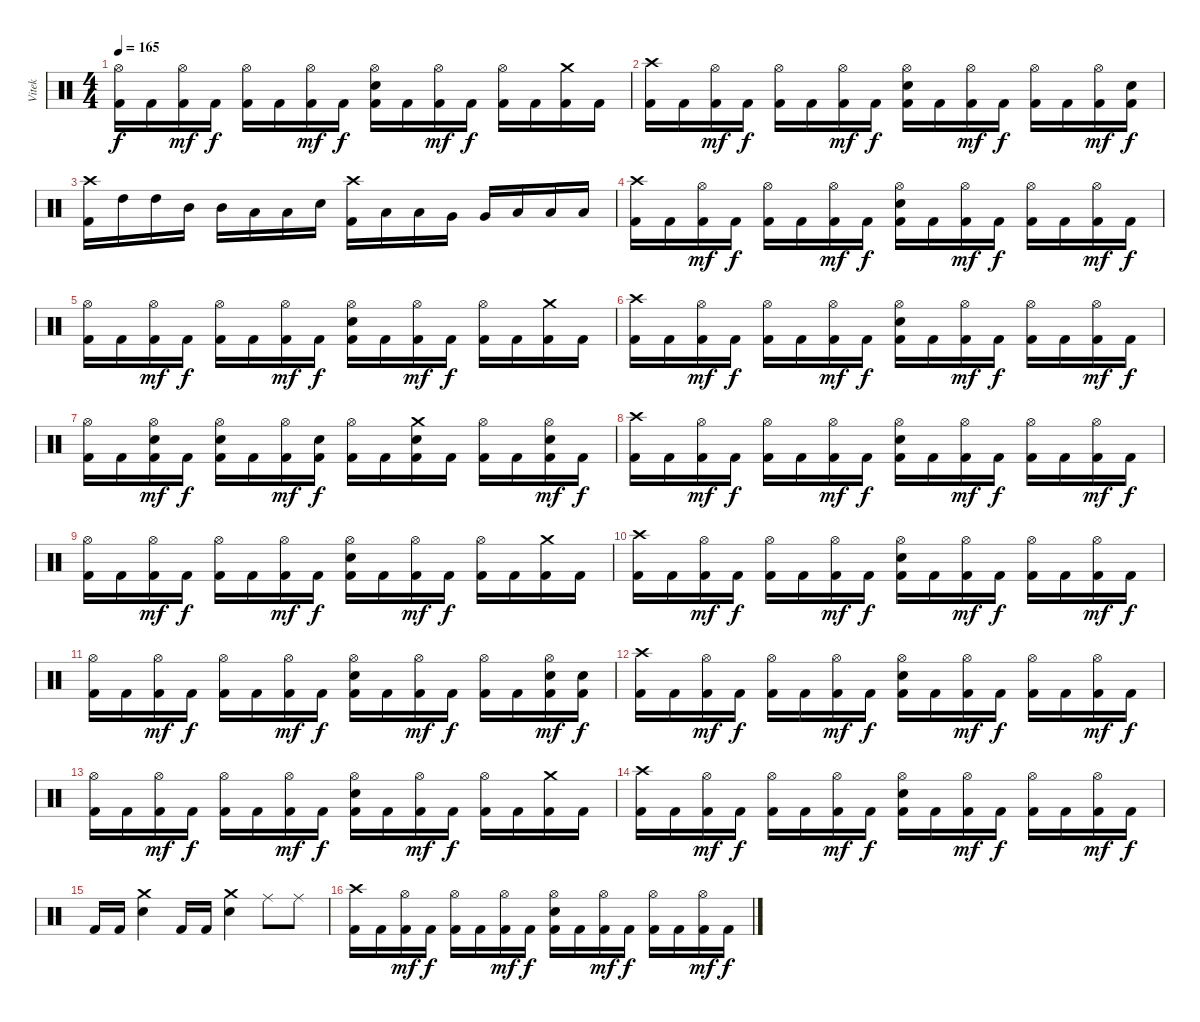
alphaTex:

\track ("Vitek" "Vitek") {instrument percussion}
\staff {score}
\articulation defaults
\ts (4 4)
\tempo 165
\clef neutral
\ks c
("Hi-Hat (open)" "Kick (hit) 2").16{dy f} "Kick (hit) 2".16 ("Hi-Hat (open)" "Kick (hit) 2").16{dy mf} "Kick (hit) 2".16{dy f} ("Hi-Hat (open)" "Kick (hit) 2").16 "Kick (hit) 2".16 ("Hi-Hat (open)" "Kick (hit) 2").16{dy mf} "Kick (hit) 2".16{dy f} ("Hi-Hat (open)" "Electric Snare (hit)" "Kick (hit) 2").16 "Kick (hit) 2".16 ("Hi-Hat (open)" "Kick (hit) 2").16{dy mf} "Kick (hit) 2".16{dy f} ("Hi-Hat (open)" "Kick (hit) 2").16 "Kick (hit) 2".16 ("Crash medium (hit)" "Kick (hit) 2").16 "Kick (hit) 2".16 |
("Crash high (hit)" "Kick (hit) 2").16 "Kick (hit) 2".16 ("Hi-Hat (open)" "Kick (hit) 2").16{dy mf} "Kick (hit) 2".16{dy f} ("Hi-Hat (open)" "Kick (hit) 2").16 "Kick (hit) 2".16 ("Hi-Hat (open)" "Kick (hit) 2").16{dy mf} "Kick (hit) 2".16{dy f} ("Hi-Hat (open)" "Electric Snare (hit)" "Kick (hit) 2").16 "Kick (hit) 2".16 ("Hi-Hat (open)" "Kick (hit) 2").16{dy mf} "Kick (hit) 2".16{dy f} ("Hi-Hat (open)" "Kick (hit) 2").16 "Kick (hit) 2".16 ("Hi-Hat (open)" "Kick (hit) 2").16{dy mf} ("Electric Snare (hit)" "Kick (hit) 2").16{dy f} |
("Crash high (hit)" "Kick (hit) 2").16 "High Tom (hit)".16 "High Tom (hit)".16 "Mid Tom (hit)".16 "Mid Tom (hit)".16 "Low Tom (hit)".16 "Low Tom (hit)".16 "Electric Snare (hit)".16 ("Crash high (hit)" "Kick (hit) 2").16 "Low Tom (hit)".16 "Low Tom (hit)".16 "Very Low Tom (hit)".16 "Very Low Tom (hit)".16 "Low Floor Tom (hit)".16 "Low Floor Tom (hit)".16 "Low Floor Tom (hit)".16 |
("Crash high (hit)" "Kick (hit) 2").16 "Kick (hit) 2".16 ("Hi-Hat (open)" "Kick (hit) 2").16{dy mf} "Kick (hit) 2".16{dy f} ("Hi-Hat (open)" "Kick (hit) 2").16 "Kick (hit) 2".16 ("Hi-Hat (open)" "Kick (hit) 2").16{dy mf} "Kick (hit) 2".16{dy f} ("Hi-Hat (open)" "Electric Snare (hit)" "Kick (hit) 2").16 "Kick (hit) 2".16 ("Hi-Hat (open)" "Kick (hit) 2").16{dy mf} "Kick (hit) 2".16{dy f} ("Hi-Hat (open)" "Kick (hit) 2").16 "Kick (hit) 2".16 ("Hi-Hat (open)" "Kick (hit) 2").16{dy mf} "Kick (hit) 2".16{dy f} |
("Hi-Hat (open)" "Kick (hit) 2").16 "Kick (hit) 2".16 ("Hi-Hat (open)" "Kick (hit) 2").16{dy mf} "Kick (hit) 2".16{dy f} ("Hi-Hat (open)" "Kick (hit) 2").16 "Kick (hit) 2".16 ("Hi-Hat (open)" "Kick (hit) 2").16{dy mf} "Kick (hit) 2".16{dy f} ("Hi-Hat (open)" "Electric Snare (hit)" "Kick (hit) 2").16 "Kick (hit) 2".16 ("Hi-Hat (open)" "Kick (hit) 2").16{dy mf} "Kick (hit) 2".16{dy f} ("Hi-Hat (open)" "Kick (hit) 2").16 "Kick (hit) 2".16 ("Crash medium (hit)" "Kick (hit) 2").16 "Kick (hit) 2".16 |
("Crash high (hit)" "Kick (hit) 2").16 "Kick (hit) 2".16 ("Hi-Hat (open)" "Kick (hit) 2").16{dy mf} "Kick (hit) 2".16{dy f} ("Hi-Hat (open)" "Kick (hit) 2").16 "Kick (hit) 2".16 ("Hi-Hat (open)" "Kick (hit) 2").16{dy mf} "Kick (hit) 2".16{dy f} ("Hi-Hat (open)" "Electric Snare (hit)" "Kick (hit) 2").16 "Kick (hit) 2".16 ("Hi-Hat (open)" "Kick (hit) 2").16{dy mf} "Kick (hit) 2".16{dy f} ("Hi-Hat (open)" "Kick (hit) 2").16 "Kick (hit) 2".16 ("Hi-Hat (open)" "Kick (hit) 2").16{dy mf} "Kick (hit) 2".16{dy f} |
("Hi-Hat (open)" "Kick (hit) 2").16 "Kick (hit) 2".16 ("Hi-Hat (open)" "Electric Snare (hit)" "Kick (hit) 2").16{dy mf} "Kick (hit) 2".16{dy f} ("Hi-Hat (open)" "Electric Snare (hit)" "Kick (hit) 2").16 "Kick (hit) 2".16 ("Hi-Hat (open)" "Kick (hit) 2").16{dy mf} ("Electric Snare (hit)" "Kick (hit) 2").16{dy f} ("Hi-Hat (open)" "Kick (hit) 2").16 "Kick (hit) 2".16 ("Crash medium (hit)" "Electric Snare (hit)" "Kick (hit) 2").16 "Kick (hit) 2".16 ("Hi-Hat (open)" "Kick (hit) 2").16 "Kick (hit) 2".16 ("Hi-Hat (open)" "Electric Snare (hit)" "Kick (hit) 2").16{dy mf} "Kick (hit) 2".16{dy f} |
("Crash high (hit)" "Kick (hit) 2").16 "Kick (hit) 2".16 ("Hi-Hat (open)" "Kick (hit) 2").16{dy mf} "Kick (hit) 2".16{dy f} ("Hi-Hat (open)" "Kick (hit) 2").16 "Kick (hit) 2".16 ("Hi-Hat (open)" "Kick (hit) 2").16{dy mf} "Kick (hit) 2".16{dy f} ("Hi-Hat (open)" "Electric Snare (hit)" "Kick (hit) 2").16 "Kick (hit) 2".16 ("Hi-Hat (open)" "Kick (hit) 2").16{dy mf} "Kick (hit) 2".16{dy f} ("Hi-Hat (open)" "Kick (hit) 2").16 "Kick (hit) 2".16 ("Hi-Hat (open)" "Kick (hit) 2").16{dy mf} "Kick (hit) 2".16{dy f} |
("Hi-Hat (open)" "Kick (hit) 2").16 "Kick (hit) 2".16 ("Hi-Hat (open)" "Kick (hit) 2").16{dy mf} "Kick (hit) 2".16{dy f} ("Hi-Hat (open)" "Kick (hit) 2").16 "Kick (hit) 2".16 ("Hi-Hat (open)" "Kick (hit) 2").16{dy mf} "Kick (hit) 2".16{dy f} ("Hi-Hat (open)" "Electric Snare (hit)" "Kick (hit) 2").16 "Kick (hit) 2".16 ("Hi-Hat (open)" "Kick (hit) 2").16{dy mf} "Kick (hit) 2".16{dy f} ("Hi-Hat (open)" "Kick (hit) 2").16 "Kick (hit) 2".16 ("Crash medium (hit)" "Kick (hit) 2").16 "Kick (hit) 2".16 |
("Crash high (hit)" "Kick (hit) 2").16 "Kick (hit) 2".16 ("Hi-Hat (open)" "Kick (hit) 2").16{dy mf} "Kick (hit) 2".16{dy f} ("Hi-Hat (open)" "Kick (hit) 2").16 "Kick (hit) 2".16 ("Hi-Hat (open)" "Kick (hit) 2").16{dy mf} "Kick (hit) 2".16{dy f} ("Hi-Hat (open)" "Electric Snare (hit)" "Kick (hit) 2").16 "Kick (hit) 2".16 ("Hi-Hat (open)" "Kick (hit) 2").16{dy mf} "Kick (hit) 2".16{dy f} ("Hi-Hat (open)" "Kick (hit) 2").16 "Kick (hit) 2".16 ("Hi-Hat (open)" "Kick (hit) 2").16{dy mf} "Kick (hit) 2".16{dy f} |
("Hi-Hat (open)" "Kick (hit) 2").16 "Kick (hit) 2".16 ("Hi-Hat (open)" "Kick (hit) 2").16{dy mf} "Kick (hit) 2".16{dy f} ("Hi-Hat (open)" "Kick (hit) 2").16 "Kick (hit) 2".16 ("Hi-Hat (open)" "Kick (hit) 2").16{dy mf} "Kick (hit) 2".16{dy f} ("Hi-Hat (open)" "Electric Snare (hit)" "Kick (hit) 2").16 "Kick (hit) 2".16 ("Hi-Hat (open)" "Kick (hit) 2").16{dy mf} "Kick (hit) 2".16{dy f} ("Hi-Hat (open)" "Kick (hit) 2").16 "Kick (hit) 2".16 ("Hi-Hat (open)" "Electric Snare (hit)" "Kick (hit) 2").16{dy mf} ("Electric Snare (hit)" "Kick (hit) 2").16{dy f} |
("Crash high (hit)" "Kick (hit) 2").16 "Kick (hit) 2".16 ("Hi-Hat (open)" "Kick (hit) 2").16{dy mf} "Kick (hit) 2".16{dy f} ("Hi-Hat (open)" "Kick (hit) 2").16 "Kick (hit) 2".16 ("Hi-Hat (open)" "Kick (hit) 2").16{dy mf} "Kick (hit) 2".16{dy f} ("Hi-Hat (open)" "Electric Snare (hit)" "Kick (hit) 2").16 "Kick (hit) 2".16 ("Hi-Hat (open)" "Kick (hit) 2").16{dy mf} "Kick (hit) 2".16{dy f} ("Hi-Hat (open)" "Kick (hit) 2").16 "Kick (hit) 2".16 ("Hi-Hat (open)" "Kick (hit) 2").16{dy mf} "Kick (hit) 2".16{dy f} |
("Hi-Hat (open)" "Kick (hit) 2").16 "Kick (hit) 2".16 ("Hi-Hat (open)" "Kick (hit) 2").16{dy mf} "Kick (hit) 2".16{dy f} ("Hi-Hat (open)" "Kick (hit) 2").16 "Kick (hit) 2".16 ("Hi-Hat (open)" "Kick (hit) 2").16{dy mf} "Kick (hit) 2".16{dy f} ("Hi-Hat (open)" "Electric Snare (hit)" "Kick (hit) 2").16 "Kick (hit) 2".16 ("Hi-Hat (open)" "Kick (hit) 2").16{dy mf} "Kick (hit) 2".16{dy f} ("Hi-Hat (open)" "Kick (hit) 2").16 "Kick (hit) 2".16 ("Crash medium (hit)" "Kick (hit) 2").16 "Kick (hit) 2".16 |
("Crash high (hit)" "Kick (hit) 2").16 "Kick (hit) 2".16 ("Hi-Hat (open)" "Kick (hit) 2").16{dy mf} "Kick (hit) 2".16{dy f} ("Hi-Hat (open)" "Kick (hit) 2").16 "Kick (hit) 2".16 ("Hi-Hat (open)" "Kick (hit) 2").16{dy mf} "Kick (hit) 2".16{dy f} ("Hi-Hat (open)" "Electric Snare (hit)" "Kick (hit) 2").16 "Kick (hit) 2".16 ("Hi-Hat (open)" "Kick (hit) 2").16{dy mf} "Kick (hit) 2".16{dy f} ("Hi-Hat (open)" "Kick (hit) 2").16 "Kick (hit) 2".16 ("Hi-Hat (open)" "Kick (hit) 2").16{dy mf} "Kick (hit) 2".16{dy f} |
"Kick (hit) 2".16 "Kick (hit) 2".16 ("Crash medium (hit)" "Electric Snare (hit)").4 "Kick (hit) 2".16 "Kick (hit) 2".16 ("Crash medium (hit)" "Electric Snare (hit)").4 "Ride (middle)".8 "Ride (middle)".8 |
("Crash high (hit)" "Kick (hit) 2").16 "Kick (hit) 2".16 ("Hi-Hat (open)" "Kick (hit) 2").16{dy mf} "Kick (hit) 2".16{dy f} ("Hi-Hat (open)" "Kick (hit) 2").16 "Kick (hit) 2".16 ("Hi-Hat (open)" "Kick (hit) 2").16{dy mf} "Kick (hit) 2".16{dy f} ("Hi-Hat (open)" "Electric Snare (hit)" "Kick (hit) 2").16 "Kick (hit) 2".16 ("Hi-Hat (open)" "Kick (hit) 2").16{dy mf} "Kick (hit) 2".16{dy f} ("Hi-Hat (open)" "Kick (hit) 2").16 "Kick (hit) 2".16 ("Hi-Hat (open)" "Kick (hit) 2").16{dy mf} "Kick (hit) 2".16{dy f}
